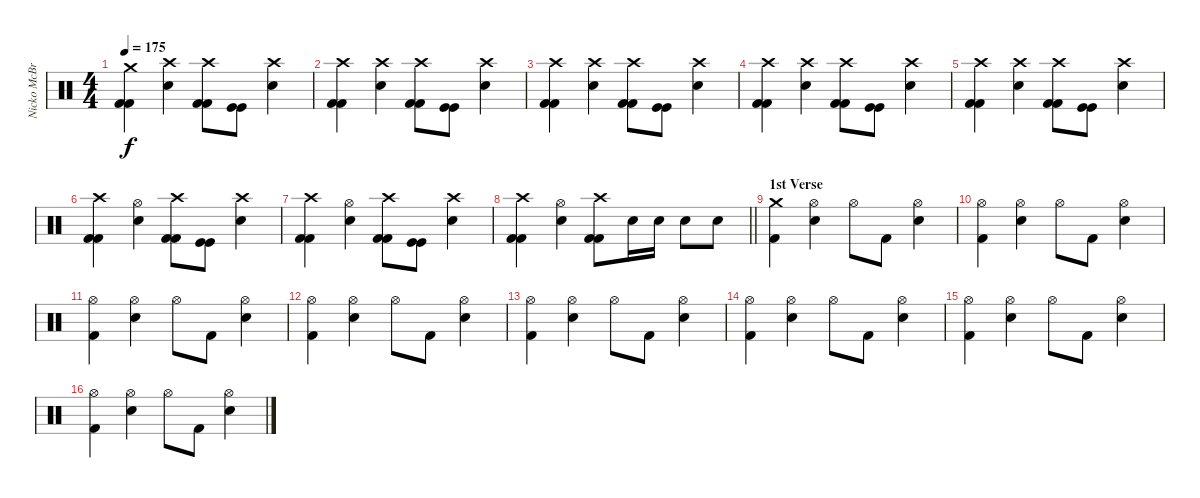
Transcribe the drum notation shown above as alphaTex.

\track ("Nicko McBrian" "Nicko McBr") {instrument percussion}
\staff {score}
\articulation defaults
\ts (4 4)
\tempo 175
\clef neutral
\ks c
("Crash medium (hit)" "Kick (hit) 2" "Kick (hit) 2").4{dy f} ("Crash high (hit)" "Snare (hit) 2").4 ("Crash high (hit)" "Kick (hit) 2" "Kick (hit) 2").8 ("Kick (hit)" "Kick (hit)").8 ("Crash high (hit)" "Snare (hit) 2").4 |
("Crash high (hit)" "Kick (hit) 2" "Kick (hit) 2").4 ("Crash high (hit)" "Snare (hit) 2").4 ("Crash high (hit)" "Kick (hit) 2" "Kick (hit) 2").8 ("Kick (hit)" "Kick (hit)").8 ("Crash high (hit)" "Snare (hit) 2").4 |
("Crash high (hit)" "Kick (hit) 2" "Kick (hit) 2").4 ("Crash high (hit)" "Snare (hit) 2").4 ("Crash high (hit)" "Kick (hit) 2" "Kick (hit) 2").8 ("Kick (hit)" "Kick (hit)").8 ("Crash high (hit)" "Snare (hit) 2").4 |
("Crash high (hit)" "Kick (hit) 2" "Kick (hit) 2").4 ("Crash high (hit)" "Snare (hit) 2").4 ("Crash high (hit)" "Kick (hit) 2" "Kick (hit) 2").8 ("Kick (hit)" "Kick (hit)").8 ("Crash high (hit)" "Snare (hit) 2").4 |
("Crash high (hit)" "Kick (hit) 2" "Kick (hit) 2").4 ("Crash high (hit)" "Snare (hit) 2").4 ("Crash high (hit)" "Kick (hit) 2" "Kick (hit) 2").8 ("Kick (hit)" "Kick (hit)").8 ("Crash high (hit)" "Snare (hit) 2").4 |
("Crash high (hit)" "Kick (hit) 2" "Kick (hit) 2").4 ("Hi-Hat (open)" "Snare (hit) 2").4 ("Crash high (hit)" "Kick (hit) 2" "Kick (hit) 2").8 ("Kick (hit)" "Kick (hit)").8 ("Crash high (hit)" "Snare (hit) 2").4 |
("Crash high (hit)" "Kick (hit) 2" "Kick (hit) 2").4 ("Hi-Hat (open)" "Snare (hit) 2").4 ("Crash high (hit)" "Kick (hit) 2" "Kick (hit) 2").8 ("Kick (hit)" "Kick (hit)").8 ("Crash high (hit)" "Snare (hit) 2").4 |
\barLineRight lightlight
("Crash high (hit)" "Kick (hit) 2" "Kick (hit) 2").4 ("Hi-Hat (open)" "Snare (hit) 2").4 ("Crash high (hit)" "Kick (hit) 2" "Kick (hit) 2").8 "Snare (hit) 2".16 "Snare (hit) 2".16 "Snare (hit) 2".8 "Snare (hit) 2".8 |
\section ("" "1st Verse")
("Crash medium (hit)" "Kick (hit) 2").4 ("Hi-Hat (open)" "Snare (hit) 2").4 "Hi-Hat (open)".8 "Kick (hit) 2".8 ("Hi-Hat (open)" "Snare (hit) 2").4 |
("Hi-Hat (open)" "Kick (hit) 2").4 ("Hi-Hat (open)" "Snare (hit) 2").4 "Hi-Hat (open)".8 "Kick (hit) 2".8 ("Hi-Hat (open)" "Snare (hit) 2").4 |
("Hi-Hat (open)" "Kick (hit) 2").4 ("Hi-Hat (open)" "Snare (hit) 2").4 "Hi-Hat (open)".8 "Kick (hit) 2".8 ("Hi-Hat (open)" "Snare (hit) 2").4 |
("Hi-Hat (open)" "Kick (hit) 2").4 ("Hi-Hat (open)" "Snare (hit) 2").4 "Hi-Hat (open)".8 "Kick (hit) 2".8 ("Hi-Hat (open)" "Snare (hit) 2").4 |
("Hi-Hat (open)" "Kick (hit) 2").4 ("Hi-Hat (open)" "Snare (hit) 2").4 "Hi-Hat (open)".8 "Kick (hit) 2".8 ("Hi-Hat (open)" "Snare (hit) 2").4 |
("Hi-Hat (open)" "Kick (hit) 2").4 ("Hi-Hat (open)" "Snare (hit) 2").4 "Hi-Hat (open)".8 "Kick (hit) 2".8 ("Hi-Hat (open)" "Snare (hit) 2").4 |
("Hi-Hat (open)" "Kick (hit) 2").4 ("Hi-Hat (open)" "Snare (hit) 2").4 "Hi-Hat (open)".8 "Kick (hit) 2".8 ("Hi-Hat (open)" "Snare (hit) 2").4 |
("Hi-Hat (open)" "Kick (hit) 2").4 ("Hi-Hat (open)" "Snare (hit) 2").4 "Hi-Hat (open)".8 "Kick (hit) 2".8 ("Hi-Hat (open)" "Snare (hit) 2").4
